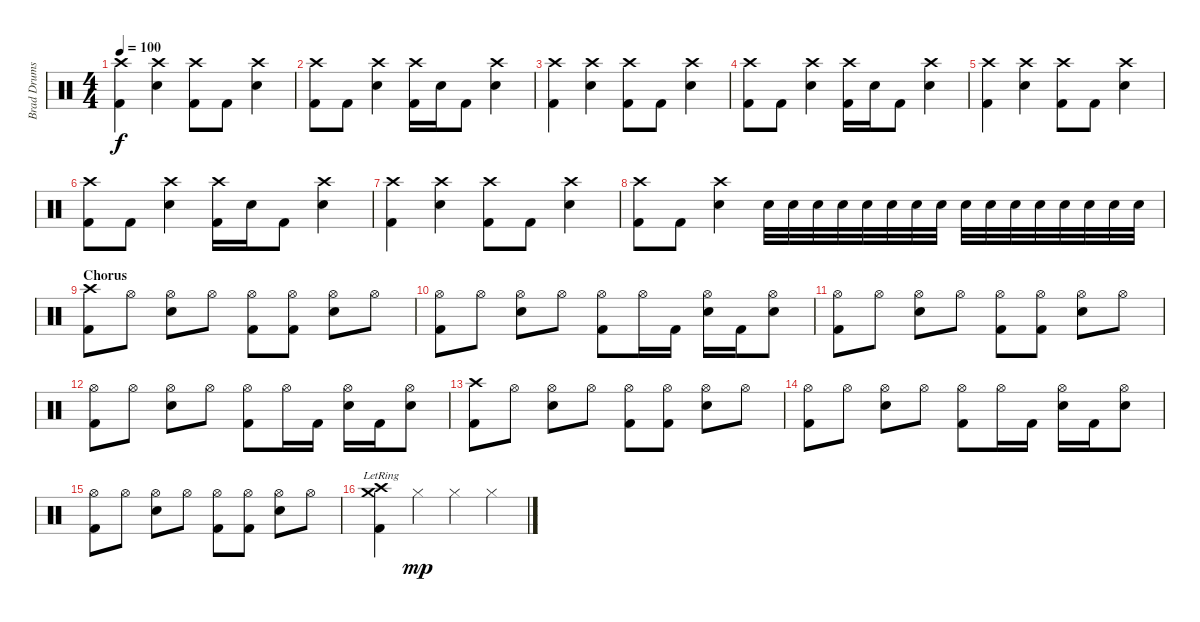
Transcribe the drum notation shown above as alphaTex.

\track ("Brad Drums" "Brad Drums") {instrument percussion}
\staff {score}
\articulation defaults
\ts (4 4)
\tempo 100
\clef neutral
\ks c
("Crash high (hit)" "Kick (hit) 2").4{dy f} ("Crash high (hit)" "Electric Snare (hit)").4 ("Crash high (hit)" "Kick (hit) 2").8 "Kick (hit) 2".8 ("Crash high (hit)" "Electric Snare (hit)").4 |
("Crash high (hit)" "Kick (hit) 2").8 "Kick (hit) 2".8 ("Crash high (hit)" "Electric Snare (hit)").4 ("Crash high (hit)" "Kick (hit) 2").16 "Electric Snare (hit)".16 "Kick (hit) 2".8 ("Crash high (hit)" "Electric Snare (hit)").4 |
("Crash high (hit)" "Kick (hit) 2").4 ("Crash high (hit)" "Electric Snare (hit)").4 ("Crash high (hit)" "Kick (hit) 2").8 "Kick (hit) 2".8 ("Crash high (hit)" "Electric Snare (hit)").4 |
("Crash high (hit)" "Kick (hit) 2").8 "Kick (hit) 2".8 ("Crash high (hit)" "Electric Snare (hit)").4 ("Crash high (hit)" "Kick (hit) 2").16 "Electric Snare (hit)".16 "Kick (hit) 2".8 ("Crash high (hit)" "Electric Snare (hit)").4 |
("Crash high (hit)" "Kick (hit) 2").4 ("Crash high (hit)" "Electric Snare (hit)").4 ("Crash high (hit)" "Kick (hit) 2").8 "Kick (hit) 2".8 ("Crash high (hit)" "Electric Snare (hit)").4 |
("Crash high (hit)" "Kick (hit) 2").8 "Kick (hit) 2".8 ("Crash high (hit)" "Electric Snare (hit)").4 ("Crash high (hit)" "Kick (hit) 2").16 "Electric Snare (hit)".16 "Kick (hit) 2".8 ("Crash high (hit)" "Electric Snare (hit)").4 |
("Crash high (hit)" "Kick (hit) 2").4 ("Crash high (hit)" "Electric Snare (hit)").4 ("Crash high (hit)" "Kick (hit) 2").8 "Kick (hit) 2".8 ("Crash high (hit)" "Electric Snare (hit)").4 |
("Crash high (hit)" "Kick (hit) 2").8 "Kick (hit) 2".8 ("Crash high (hit)" "Electric Snare (hit)").4 "Electric Snare (hit)".32 "Electric Snare (hit)".32 "Electric Snare (hit)".32 "Electric Snare (hit)".32 "Electric Snare (hit)".32 "Electric Snare (hit)".32 "Electric Snare (hit)".32 "Electric Snare (hit)".32 "Electric Snare (hit)".32 "Electric Snare (hit)".32 "Electric Snare (hit)".32 "Electric Snare (hit)".32 "Electric Snare (hit)".32 "Electric Snare (hit)".32 "Electric Snare (hit)".32 "Electric Snare (hit)".32 |
\section ("" "Chorus")
("Crash high (hit)" "Kick (hit) 2").8 "Hi-Hat (open)".8 ("Hi-Hat (open)" "Electric Snare (hit)").8 "Hi-Hat (open)".8 ("Hi-Hat (open)" "Kick (hit) 2").8 ("Hi-Hat (open)" "Kick (hit) 2").8 ("Hi-Hat (open)" "Electric Snare (hit)").8 "Hi-Hat (open)".8 |
("Hi-Hat (open)" "Kick (hit) 2").8 "Hi-Hat (open)".8 ("Hi-Hat (open)" "Electric Snare (hit)").8 "Hi-Hat (open)".8 ("Hi-Hat (open)" "Kick (hit) 2").8 "Hi-Hat (open)".16 "Kick (hit) 2".16 ("Hi-Hat (open)" "Electric Snare (hit)").16 "Kick (hit) 2".16 ("Hi-Hat (open)" "Electric Snare (hit)").8 |
("Hi-Hat (open)" "Kick (hit) 2").8 "Hi-Hat (open)".8 ("Hi-Hat (open)" "Electric Snare (hit)").8 "Hi-Hat (open)".8 ("Hi-Hat (open)" "Kick (hit) 2").8 ("Hi-Hat (open)" "Kick (hit) 2").8 ("Hi-Hat (open)" "Electric Snare (hit)").8 "Hi-Hat (open)".8 |
("Hi-Hat (open)" "Kick (hit) 2").8 "Hi-Hat (open)".8 ("Hi-Hat (open)" "Electric Snare (hit)").8 "Hi-Hat (open)".8 ("Hi-Hat (open)" "Kick (hit) 2").8 "Hi-Hat (open)".16 "Kick (hit) 2".16 ("Hi-Hat (open)" "Electric Snare (hit)").16 "Kick (hit) 2".16 ("Hi-Hat (open)" "Electric Snare (hit)").8 |
("Crash high (hit)" "Kick (hit) 2").8 "Hi-Hat (open)".8 ("Hi-Hat (open)" "Electric Snare (hit)").8 "Hi-Hat (open)".8 ("Hi-Hat (open)" "Kick (hit) 2").8 ("Hi-Hat (open)" "Kick (hit) 2").8 ("Hi-Hat (open)" "Electric Snare (hit)").8 "Hi-Hat (open)".8 |
("Hi-Hat (open)" "Kick (hit) 2").8 "Hi-Hat (open)".8 ("Hi-Hat (open)" "Electric Snare (hit)").8 "Hi-Hat (open)".8 ("Hi-Hat (open)" "Kick (hit) 2").8 "Hi-Hat (open)".16 "Kick (hit) 2".16 ("Hi-Hat (open)" "Electric Snare (hit)").16 "Kick (hit) 2".16 ("Hi-Hat (open)" "Electric Snare (hit)").8 |
("Hi-Hat (open)" "Kick (hit) 2").8 "Hi-Hat (open)".8 ("Hi-Hat (open)" "Electric Snare (hit)").8 "Hi-Hat (open)".8 ("Hi-Hat (open)" "Kick (hit) 2").8 ("Hi-Hat (open)" "Kick (hit) 2").8 ("Hi-Hat (open)" "Electric Snare (hit)").8 "Hi-Hat (open)".8 |
("Crash high (hit)"{lr} "Crash medium (hit)"{lr} "Kick (hit) 2").4 "Hi-Hat (closed)".4{dy mp} "Hi-Hat (closed)".4 "Hi-Hat (closed)".4
